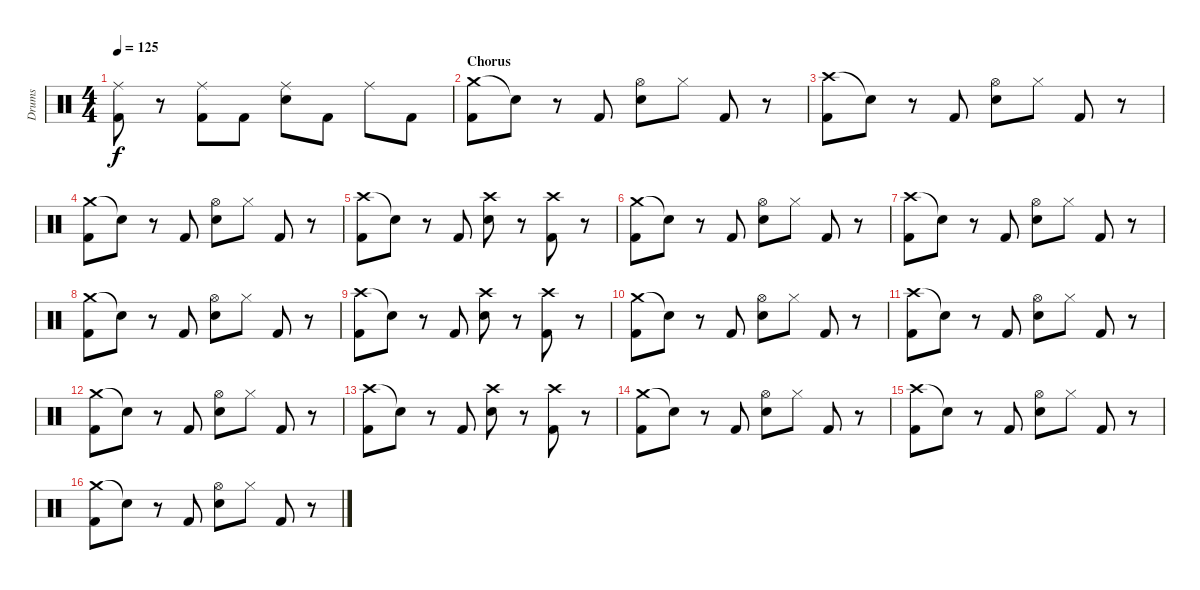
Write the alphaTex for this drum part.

\track ("Drums" "Drums") {instrument percussion}
\staff {score}
\articulation defaults
\ts (4 4)
\tempo 125
\clef neutral
\ks c
("Ride (middle)" "Kick (hit) 2").8{dy f} r.8 ("Ride (middle)" "Kick (hit) 2").8 "Kick (hit) 2".8 ("Ride (middle)" "Electric Snare (hit)").8 "Kick (hit) 2".8 "Ride (middle)".8 "Kick (hit) 2".8 |
\section ("" "Chorus")
("Crash medium (hit)" "Kick (hit) 2").8 "Snare (hit)"{t}.8 r.8 "Kick (hit) 2".8 ("Hi-Hat (open)" "Electric Snare (hit)").8 "Hi-Hat (closed)".8 "Kick (hit) 2".8 r.8 |
("Crash high (hit)" "Kick (hit) 2").8 "Snare (hit)"{t}.8 r.8 "Kick (hit) 2".8 ("Hi-Hat (open)" "Electric Snare (hit)").8 "Hi-Hat (closed)".8 "Kick (hit) 2".8 r.8 |
("Crash medium (hit)" "Kick (hit) 2").8 "Snare (hit)"{t}.8 r.8 "Kick (hit) 2".8 ("Hi-Hat (open)" "Electric Snare (hit)").8 "Hi-Hat (closed)".8 "Kick (hit) 2".8 r.8 |
("Crash high (hit)" "Kick (hit) 2").8 "Snare (hit)"{t}.8 r.8 "Kick (hit) 2".8 ("Crash high (hit)" "Electric Snare (hit)").8 r.8 ("Crash high (hit)" "Kick (hit) 2").8 r.8 |
("Crash medium (hit)" "Kick (hit) 2").8 "Snare (hit)"{t}.8 r.8 "Kick (hit) 2".8 ("Hi-Hat (open)" "Electric Snare (hit)").8 "Hi-Hat (closed)".8 "Kick (hit) 2".8 r.8 |
("Crash high (hit)" "Kick (hit) 2").8 "Snare (hit)"{t}.8 r.8 "Kick (hit) 2".8 ("Hi-Hat (open)" "Electric Snare (hit)").8 "Hi-Hat (closed)".8 "Kick (hit) 2".8 r.8 |
("Crash medium (hit)" "Kick (hit) 2").8 "Snare (hit)"{t}.8 r.8 "Kick (hit) 2".8 ("Hi-Hat (open)" "Electric Snare (hit)").8 "Hi-Hat (closed)".8 "Kick (hit) 2".8 r.8 |
("Crash high (hit)" "Kick (hit) 2").8 "Snare (hit)"{t}.8 r.8 "Kick (hit) 2".8 ("Crash high (hit)" "Electric Snare (hit)").8 r.8 ("Crash high (hit)" "Kick (hit) 2").8 r.8 |
("Crash medium (hit)" "Kick (hit) 2").8 "Snare (hit)"{t}.8 r.8 "Kick (hit) 2".8 ("Hi-Hat (open)" "Electric Snare (hit)").8 "Hi-Hat (closed)".8 "Kick (hit) 2".8 r.8 |
("Crash high (hit)" "Kick (hit) 2").8 "Snare (hit)"{t}.8 r.8 "Kick (hit) 2".8 ("Hi-Hat (open)" "Electric Snare (hit)").8 "Hi-Hat (closed)".8 "Kick (hit) 2".8 r.8 |
("Crash medium (hit)" "Kick (hit) 2").8 "Snare (hit)"{t}.8 r.8 "Kick (hit) 2".8 ("Hi-Hat (open)" "Electric Snare (hit)").8 "Hi-Hat (closed)".8 "Kick (hit) 2".8 r.8 |
("Crash high (hit)" "Kick (hit) 2").8 "Snare (hit)"{t}.8 r.8 "Kick (hit) 2".8 ("Crash high (hit)" "Electric Snare (hit)").8 r.8 ("Crash high (hit)" "Kick (hit) 2").8 r.8 |
("Crash medium (hit)" "Kick (hit) 2").8 "Snare (hit)"{t}.8 r.8 "Kick (hit) 2".8 ("Hi-Hat (open)" "Electric Snare (hit)").8 "Hi-Hat (closed)".8 "Kick (hit) 2".8 r.8 |
("Crash high (hit)" "Kick (hit) 2").8 "Snare (hit)"{t}.8 r.8 "Kick (hit) 2".8 ("Hi-Hat (open)" "Electric Snare (hit)").8 "Hi-Hat (closed)".8 "Kick (hit) 2".8 r.8 |
("Crash medium (hit)" "Kick (hit) 2").8 "Snare (hit)"{t}.8 r.8 "Kick (hit) 2".8 ("Hi-Hat (open)" "Electric Snare (hit)").8 "Hi-Hat (closed)".8 "Kick (hit) 2".8 r.8
